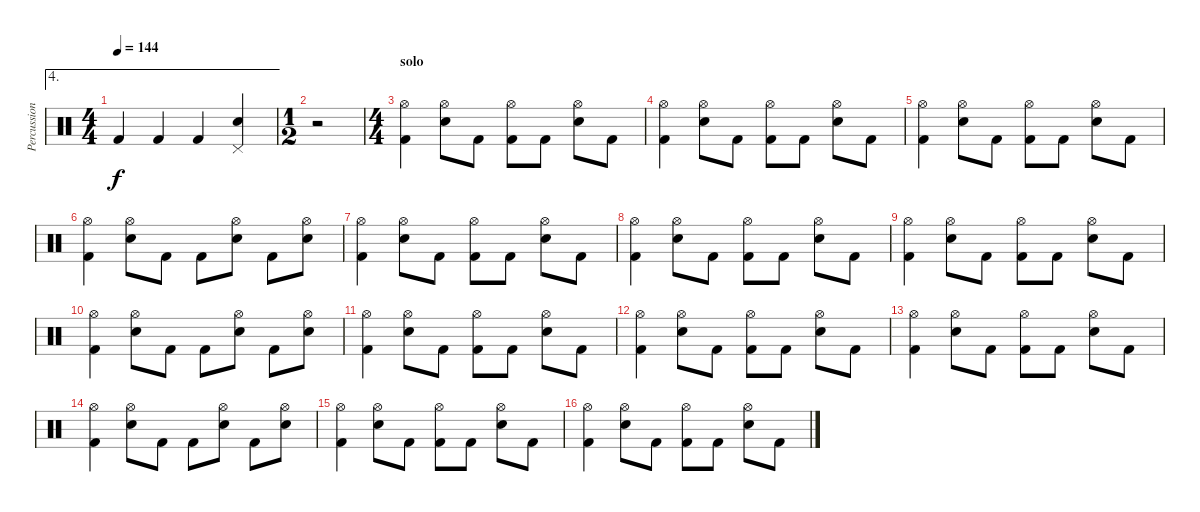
\track ("Percussion" "Percussion") {instrument percussion}
\staff {score}
\articulation defaults
\ae 4
\ts (4 4)
\tempo 144
\clef neutral
\ks c "Kick (hit) 2".4{dy f} "Kick (hit) 2".4 "Kick (hit) 2".4
("Pedal Hi-Hat (hit)" "Electric Snare (hit)").4 |
\ts (1 2)
r.2 |
\ts (4 4)
\section ("" "solo")
("Hi-Hat (open)" "Kick (hit) 2").4 ("Hi-Hat (open)" "Electric Snare (hit)").8 "Kick (hit) 2".8 ("Hi-Hat (open)" "Kick (hit) 2").8 "Kick (hit) 2".8 ("Hi-Hat (open)" "Electric Snare (hit)").8 "Kick (hit) 2".8 |
("Hi-Hat (open)" "Kick (hit) 2").4 ("Hi-Hat (open)" "Electric Snare (hit)").8 "Kick (hit) 2".8 ("Hi-Hat (open)" "Kick (hit) 2").8 "Kick (hit) 2".8 ("Hi-Hat (open)" "Electric Snare (hit)").8 "Kick (hit) 2".8 |
("Hi-Hat (open)" "Kick (hit) 2").4 ("Hi-Hat (open)" "Electric Snare (hit)").8 "Kick (hit) 2".8 ("Hi-Hat (open)" "Kick (hit) 2").8 "Kick (hit) 2".8 ("Hi-Hat (open)" "Electric Snare (hit)").8 "Kick (hit) 2".8 |
("Hi-Hat (open)" "Kick (hit) 2").4 ("Hi-Hat (open)" "Electric Snare (hit)").8 "Kick (hit) 2".8 "Kick (hit) 2".8 ("Hi-Hat (open)" "Electric Snare (hit)").8 "Kick (hit) 2".8 ("Hi-Hat (open)" "Electric Snare (hit)").8 |
("Hi-Hat (open)" "Kick (hit) 2").4 ("Hi-Hat (open)" "Electric Snare (hit)").8 "Kick (hit) 2".8 ("Hi-Hat (open)" "Kick (hit) 2").8 "Kick (hit) 2".8 ("Hi-Hat (open)" "Electric Snare (hit)").8 "Kick (hit) 2".8 |
("Hi-Hat (open)" "Kick (hit) 2").4 ("Hi-Hat (open)" "Electric Snare (hit)").8 "Kick (hit) 2".8 ("Hi-Hat (open)" "Kick (hit) 2").8 "Kick (hit) 2".8 ("Hi-Hat (open)" "Electric Snare (hit)").8 "Kick (hit) 2".8 |
("Hi-Hat (open)" "Kick (hit) 2").4 ("Hi-Hat (open)" "Electric Snare (hit)").8 "Kick (hit) 2".8 ("Hi-Hat (open)" "Kick (hit) 2").8 "Kick (hit) 2".8 ("Hi-Hat (open)" "Electric Snare (hit)").8 "Kick (hit) 2".8 |
("Hi-Hat (open)" "Kick (hit) 2").4 ("Hi-Hat (open)" "Electric Snare (hit)").8 "Kick (hit) 2".8 "Kick (hit) 2".8 ("Hi-Hat (open)" "Electric Snare (hit)").8 "Kick (hit) 2".8 ("Hi-Hat (open)" "Electric Snare (hit)").8 |
("Hi-Hat (open)" "Kick (hit) 2").4 ("Hi-Hat (open)" "Electric Snare (hit)").8 "Kick (hit) 2".8 ("Hi-Hat (open)" "Kick (hit) 2").8 "Kick (hit) 2".8 ("Hi-Hat (open)" "Electric Snare (hit)").8 "Kick (hit) 2".8 |
("Hi-Hat (open)" "Kick (hit) 2").4 ("Hi-Hat (open)" "Electric Snare (hit)").8 "Kick (hit) 2".8 ("Hi-Hat (open)" "Kick (hit) 2").8 "Kick (hit) 2".8 ("Hi-Hat (open)" "Electric Snare (hit)").8 "Kick (hit) 2".8 |
("Hi-Hat (open)" "Kick (hit) 2").4 ("Hi-Hat (open)" "Electric Snare (hit)").8 "Kick (hit) 2".8 ("Hi-Hat (open)" "Kick (hit) 2").8 "Kick (hit) 2".8 ("Hi-Hat (open)" "Electric Snare (hit)").8 "Kick (hit) 2".8 |
("Hi-Hat (open)" "Kick (hit) 2").4 ("Hi-Hat (open)" "Electric Snare (hit)").8 "Kick (hit) 2".8 "Kick (hit) 2".8 ("Hi-Hat (open)" "Electric Snare (hit)").8 "Kick (hit) 2".8 ("Hi-Hat (open)" "Electric Snare (hit)").8 |
("Hi-Hat (open)" "Kick (hit) 2").4 ("Hi-Hat (open)" "Electric Snare (hit)").8 "Kick (hit) 2".8 ("Hi-Hat (open)" "Kick (hit) 2").8 "Kick (hit) 2".8 ("Hi-Hat (open)" "Electric Snare (hit)").8 "Kick (hit) 2".8 |
("Hi-Hat (open)" "Kick (hit) 2").4 ("Hi-Hat (open)" "Electric Snare (hit)").8 "Kick (hit) 2".8 ("Hi-Hat (open)" "Kick (hit) 2").8 "Kick (hit) 2".8 ("Hi-Hat (open)" "Electric Snare (hit)").8 "Kick (hit) 2".8
